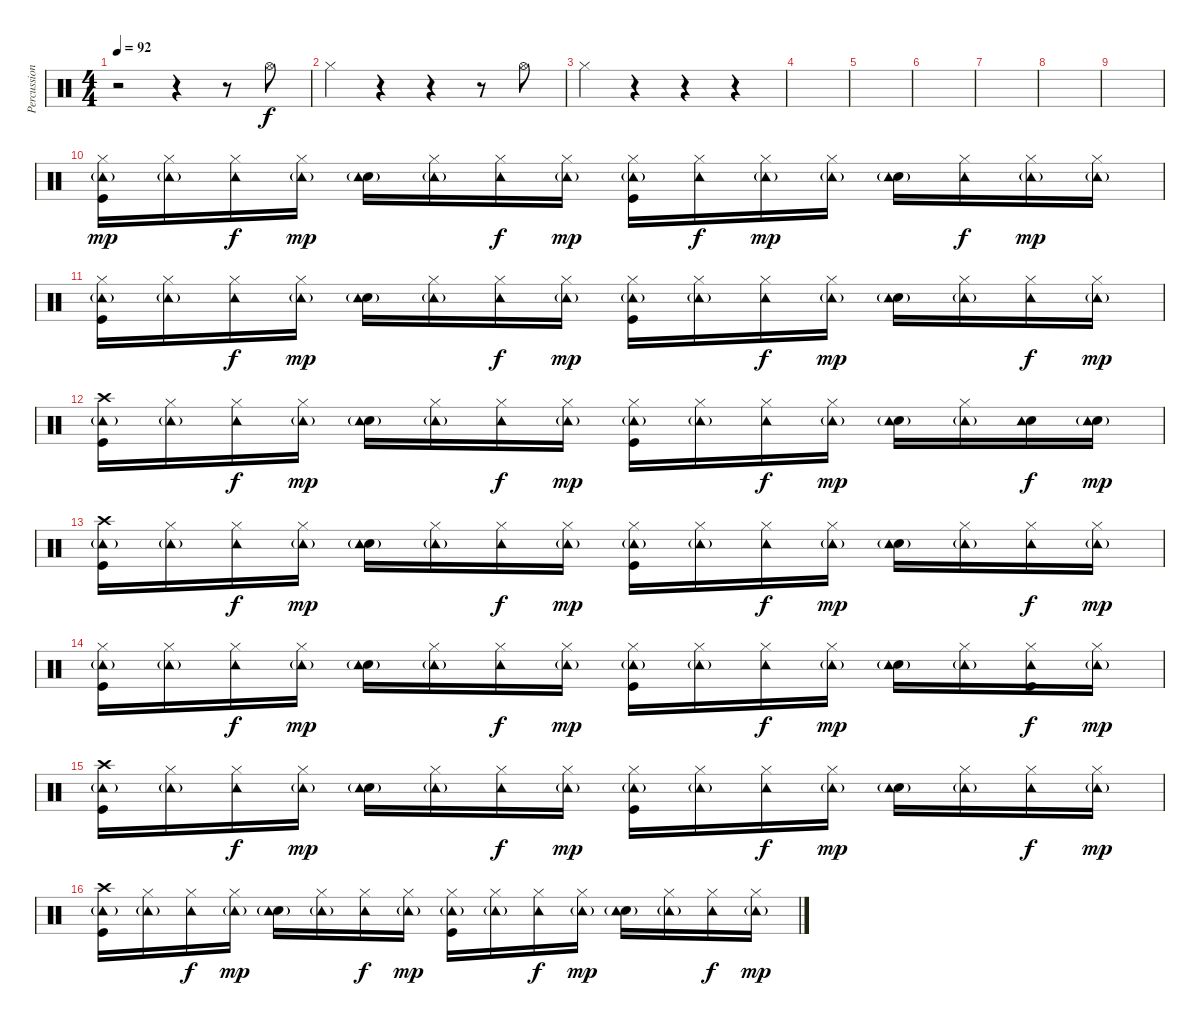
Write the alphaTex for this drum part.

\track ("Percussion" "Percussion") {instrument percussion}
\staff {score}
\articulation defaults
\ts (4 4)
\tempo 92
\clef neutral
\ks c
r.2{dy f} r.4 r.8 "Hi-Hat (open)".8 |
"Hi-Hat (closed)".4 r.4 r.4 r.8 "Hi-Hat (open)".8 |
"Hi-Hat (closed)".4 r.4 r.4 r.4 |
|
|
|
|
|
|
("Hi-Hat (closed)" "Kick (hit)" "Tambourine (hit)"{g}).16{dy mp} ("Hi-Hat (closed)" "Tambourine (hit)"{g}).16 ("Hi-Hat (closed)" "Tambourine (hit)").16{dy f} ("Hi-Hat (closed)" "Tambourine (hit)"{g}).16{dy mp} ("Snare (hit) 2" "Tambourine (hit)"{g}).16 ("Hi-Hat (closed)" "Tambourine (hit)"{g}).16 ("Hi-Hat (closed)" "Tambourine (hit)").16{dy f} ("Hi-Hat (closed)" "Tambourine (hit)"{g}).16{dy mp} ("Hi-Hat (closed)" "Kick (hit)" "Tambourine (hit)"{g}).16 ("Hi-Hat (closed)" "Tambourine (hit)").16{dy f} ("Hi-Hat (closed)" "Tambourine (hit)"{g}).16{dy mp} ("Hi-Hat (closed)" "Tambourine (hit)"{g}).16 ("Snare (hit) 2" "Tambourine (hit)"{g}).16 ("Hi-Hat (closed)" "Tambourine (hit)").16{dy f} ("Hi-Hat (closed)" "Tambourine (hit)"{g}).16{dy mp} ("Hi-Hat (closed)" "Tambourine (hit)"{g}).16 |
("Hi-Hat (closed)" "Kick (hit)" "Tambourine (hit)"{g}).16 ("Hi-Hat (closed)" "Tambourine (hit)"{g}).16 ("Hi-Hat (closed)" "Tambourine (hit)").16{dy f} ("Hi-Hat (closed)" "Tambourine (hit)"{g}).16{dy mp} ("Snare (hit) 2" "Tambourine (hit)"{g}).16 ("Hi-Hat (closed)" "Tambourine (hit)"{g}).16 ("Hi-Hat (closed)" "Tambourine (hit)").16{dy f} ("Hi-Hat (closed)" "Tambourine (hit)"{g}).16{dy mp} ("Hi-Hat (closed)" "Kick (hit)" "Tambourine (hit)"{g}).16 ("Hi-Hat (closed)" "Tambourine (hit)"{g}).16 ("Hi-Hat (closed)" "Tambourine (hit)").16{dy f} ("Hi-Hat (closed)" "Tambourine (hit)"{g}).16{dy mp} ("Snare (hit) 2" "Tambourine (hit)"{g}).16 ("Hi-Hat (closed)" "Tambourine (hit)"{g}).16 ("Hi-Hat (closed)" "Tambourine (hit)").16{dy f} ("Hi-Hat (closed)" "Tambourine (hit)"{g}).16{dy mp} |
("Crash high (hit)" "Kick (hit)" "Tambourine (hit)"{g}).16 ("Hi-Hat (closed)" "Tambourine (hit)"{g}).16 ("Hi-Hat (closed)" "Tambourine (hit)").16{dy f} ("Hi-Hat (closed)" "Tambourine (hit)"{g}).16{dy mp} ("Snare (hit) 2" "Tambourine (hit)"{g}).16 ("Hi-Hat (closed)" "Tambourine (hit)"{g}).16 ("Hi-Hat (closed)" "Tambourine (hit)").16{dy f} ("Hi-Hat (closed)" "Tambourine (hit)"{g}).16{dy mp} ("Hi-Hat (closed)" "Kick (hit)" "Tambourine (hit)"{g}).16 ("Hi-Hat (closed)" "Tambourine (hit)"{g}).16 ("Hi-Hat (closed)" "Tambourine (hit)").16{dy f} ("Hi-Hat (closed)" "Tambourine (hit)"{g}).16{dy mp} ("Snare (hit) 2" "Tambourine (hit)"{g}).16 ("Hi-Hat (closed)" "Tambourine (hit)"{g}).16 ("Snare (hit) 2" "Tambourine (hit)").16{dy f} ("Snare (hit) 2" "Tambourine (hit)"{g}).16{dy mp} |
("Crash high (hit)" "Kick (hit)" "Tambourine (hit)"{g}).16 ("Hi-Hat (closed)" "Tambourine (hit)"{g}).16 ("Hi-Hat (closed)" "Tambourine (hit)").16{dy f} ("Hi-Hat (closed)" "Tambourine (hit)"{g}).16{dy mp} ("Snare (hit) 2" "Tambourine (hit)"{g}).16 ("Hi-Hat (closed)" "Tambourine (hit)"{g}).16 ("Hi-Hat (closed)" "Tambourine (hit)").16{dy f} ("Hi-Hat (closed)" "Tambourine (hit)"{g}).16{dy mp} ("Hi-Hat (closed)" "Kick (hit)" "Tambourine (hit)"{g}).16 ("Hi-Hat (closed)" "Tambourine (hit)"{g}).16 ("Hi-Hat (closed)" "Tambourine (hit)").16{dy f} ("Hi-Hat (closed)" "Tambourine (hit)"{g}).16{dy mp} ("Snare (hit) 2" "Tambourine (hit)"{g}).16 ("Hi-Hat (closed)" "Tambourine (hit)"{g}).16 ("Hi-Hat (closed)" "Tambourine (hit)").16{dy f} ("Hi-Hat (closed)" "Tambourine (hit)"{g}).16{dy mp} |
("Hi-Hat (closed)" "Kick (hit)" "Tambourine (hit)"{g}).16 ("Hi-Hat (closed)" "Tambourine (hit)"{g}).16 ("Hi-Hat (closed)" "Tambourine (hit)").16{dy f} ("Hi-Hat (closed)" "Tambourine (hit)"{g}).16{dy mp} ("Snare (hit) 2" "Tambourine (hit)"{g}).16 ("Hi-Hat (closed)" "Tambourine (hit)"{g}).16 ("Hi-Hat (closed)" "Tambourine (hit)").16{dy f} ("Hi-Hat (closed)" "Tambourine (hit)"{g}).16{dy mp} ("Hi-Hat (closed)" "Kick (hit)" "Tambourine (hit)"{g}).16 ("Hi-Hat (closed)" "Tambourine (hit)"{g}).16 ("Hi-Hat (closed)" "Tambourine (hit)").16{dy f} ("Hi-Hat (closed)" "Tambourine (hit)"{g}).16{dy mp} ("Snare (hit) 2" "Tambourine (hit)"{g}).16 ("Hi-Hat (closed)" "Tambourine (hit)"{g}).16 ("Hi-Hat (closed)" "Kick (hit)" "Tambourine (hit)").16{dy f} ("Hi-Hat (closed)" "Tambourine (hit)"{g}).16{dy mp} |
("Crash high (hit)" "Kick (hit)" "Tambourine (hit)"{g}).16 ("Hi-Hat (closed)" "Tambourine (hit)"{g}).16 ("Hi-Hat (closed)" "Tambourine (hit)").16{dy f} ("Hi-Hat (closed)" "Tambourine (hit)"{g}).16{dy mp} ("Snare (hit) 2" "Tambourine (hit)"{g}).16 ("Hi-Hat (closed)" "Tambourine (hit)"{g}).16 ("Hi-Hat (closed)" "Tambourine (hit)").16{dy f} ("Hi-Hat (closed)" "Tambourine (hit)"{g}).16{dy mp} ("Hi-Hat (closed)" "Kick (hit)" "Tambourine (hit)"{g}).16 ("Hi-Hat (closed)" "Tambourine (hit)"{g}).16 ("Hi-Hat (closed)" "Tambourine (hit)").16{dy f} ("Hi-Hat (closed)" "Tambourine (hit)"{g}).16{dy mp} ("Snare (hit) 2" "Tambourine (hit)"{g}).16 ("Hi-Hat (closed)" "Tambourine (hit)"{g}).16 ("Hi-Hat (closed)" "Tambourine (hit)").16{dy f} ("Hi-Hat (closed)" "Tambourine (hit)"{g}).16{dy mp} |
("Crash high (hit)" "Kick (hit)" "Tambourine (hit)"{g}).16 ("Hi-Hat (closed)" "Tambourine (hit)"{g}).16 ("Hi-Hat (closed)" "Tambourine (hit)").16{dy f} ("Hi-Hat (closed)" "Tambourine (hit)"{g}).16{dy mp} ("Snare (hit) 2" "Tambourine (hit)"{g}).16 ("Hi-Hat (closed)" "Tambourine (hit)"{g}).16 ("Hi-Hat (closed)" "Tambourine (hit)").16{dy f} ("Hi-Hat (closed)" "Tambourine (hit)"{g}).16{dy mp} ("Hi-Hat (closed)" "Kick (hit)" "Tambourine (hit)"{g}).16 ("Hi-Hat (closed)" "Tambourine (hit)"{g}).16 ("Hi-Hat (closed)" "Tambourine (hit)").16{dy f} ("Hi-Hat (closed)" "Tambourine (hit)"{g}).16{dy mp} ("Snare (hit) 2" "Tambourine (hit)"{g}).16 ("Hi-Hat (closed)" "Tambourine (hit)"{g}).16 ("Hi-Hat (closed)" "Tambourine (hit)").16{dy f} ("Hi-Hat (closed)" "Tambourine (hit)"{g}).16{dy mp}
